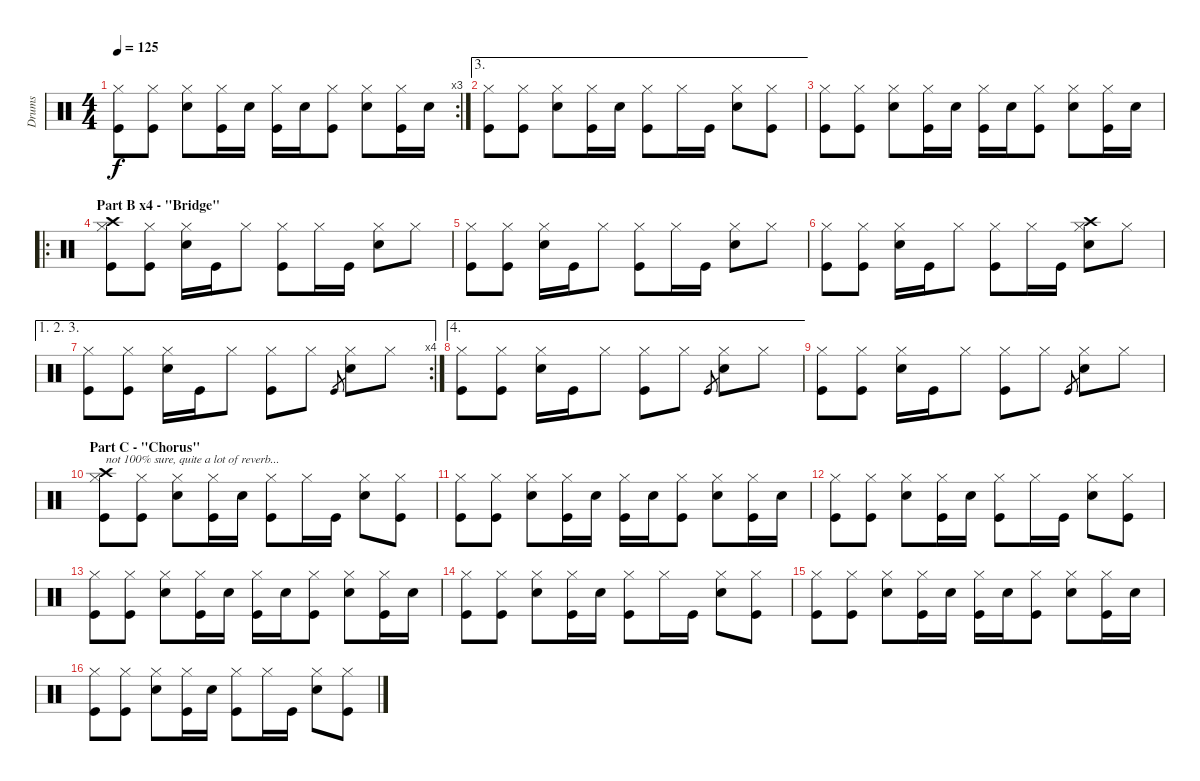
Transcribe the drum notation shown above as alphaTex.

\track ("Drums" "Drums") {instrument percussion}
\staff {score}
\articulation defaults
\rc 3
\ts (4 4)
\tempo 125
\clef neutral
\ks c
("Hi-Hat (closed)" "Kick (hit)").8{dy f} ("Hi-Hat (closed)" "Kick (hit)").8 ("Hi-Hat (closed)" "Electric Snare (hit)").8 ("Hi-Hat (closed)" "Kick (hit)").16 "Electric Snare (hit)".16 ("Hi-Hat (closed)" "Kick (hit)").16 "Electric Snare (hit)".16 ("Hi-Hat (closed)" "Kick (hit)").8 ("Hi-Hat (closed)" "Electric Snare (hit)").8 ("Hi-Hat (closed)" "Kick (hit)").16 "Electric Snare (hit)".16 |
\ae 3
("Hi-Hat (closed)" "Kick (hit)").8 ("Hi-Hat (closed)" "Kick (hit)").8 ("Hi-Hat (closed)" "Electric Snare (hit)").8 ("Hi-Hat (closed)" "Kick (hit)").16 "Electric Snare (hit)".16 ("Hi-Hat (closed)" "Kick (hit)").8 "Hi-Hat (closed)".16 "Kick (hit)".16 ("Hi-Hat (closed)" "Electric Snare (hit)").8 ("Hi-Hat (closed)" "Kick (hit)").8 |
("Hi-Hat (closed)" "Kick (hit)").8 ("Hi-Hat (closed)" "Kick (hit)").8 ("Hi-Hat (closed)" "Electric Snare (hit)").8 ("Hi-Hat (closed)" "Kick (hit)").16 "Electric Snare (hit)".16 ("Hi-Hat (closed)" "Kick (hit)").16 "Electric Snare (hit)".16 ("Hi-Hat (closed)" "Kick (hit)").8 ("Hi-Hat (closed)" "Electric Snare (hit)").8 ("Hi-Hat (closed)" "Kick (hit)").16 "Electric Snare (hit)".16 |
\ro
\section ("" "Part B x4 - \"Bridge\"")
("Hi-Hat (closed)" "Crash high (hit)" "Kick (hit)").8 ("Hi-Hat (closed)" "Kick (hit)").8 ("Hi-Hat (closed)" "Electric Snare (hit)").16 "Kick (hit)".16 "Hi-Hat (closed)".8 ("Hi-Hat (closed)" "Kick (hit)").8 "Hi-Hat (closed)".16 "Kick (hit)".16 ("Hi-Hat (closed)" "Electric Snare (hit)").8 "Hi-Hat (closed)".8 |
("Hi-Hat (closed)" "Kick (hit)").8 ("Hi-Hat (closed)" "Kick (hit)").8 ("Hi-Hat (closed)" "Electric Snare (hit)").16 "Kick (hit)".16 "Hi-Hat (closed)".8 ("Hi-Hat (closed)" "Kick (hit)").8 "Hi-Hat (closed)".16 "Kick (hit)".16 ("Hi-Hat (closed)" "Electric Snare (hit)").8 "Hi-Hat (closed)".8 |
("Hi-Hat (closed)" "Kick (hit)").8 ("Hi-Hat (closed)" "Kick (hit)").8 ("Hi-Hat (closed)" "Electric Snare (hit)").16 "Kick (hit)".16 "Hi-Hat (closed)".8 ("Hi-Hat (closed)" "Kick (hit)").8 "Hi-Hat (closed)".16 "Kick (hit)".16 ("Hi-Hat (closed)" "Crash high (hit)" "Electric Snare (hit)").8 "Hi-Hat (closed)".8 |
\ae (1 2 3)
\rc 4
("Hi-Hat (closed)" "Kick (hit)").8 ("Hi-Hat (closed)" "Kick (hit)").8 ("Hi-Hat (closed)" "Electric Snare (hit)").16 "Kick (hit)".16 "Hi-Hat (closed)".8 ("Hi-Hat (closed)" "Kick (hit)").8 "Hi-Hat (closed)".8 "Kick (hit)".8{gr} ("Hi-Hat (closed)" "Electric Snare (hit)").8 "Hi-Hat (closed)".8 |
\ae 4
("Hi-Hat (closed)" "Kick (hit)").8 ("Hi-Hat (closed)" "Kick (hit)").8 ("Hi-Hat (closed)" "Electric Snare (hit)").16 "Kick (hit)".16 "Hi-Hat (closed)".8 ("Hi-Hat (closed)" "Kick (hit)").8 "Hi-Hat (closed)".8 "Kick (hit)".8{gr} ("Hi-Hat (closed)" "Electric Snare (hit)").8 "Hi-Hat (closed)".8 |
("Hi-Hat (closed)" "Kick (hit)").8 ("Hi-Hat (closed)" "Kick (hit)").8 ("Hi-Hat (closed)" "Electric Snare (hit)").16 "Kick (hit)".16 "Hi-Hat (closed)".8 ("Hi-Hat (closed)" "Kick (hit)").8 "Hi-Hat (closed)".8 "Kick (hit)".8{gr} ("Hi-Hat (closed)" "Electric Snare (hit)").8 "Hi-Hat (closed)".8 |
\section ("" "Part C - \"Chorus\"")
("Hi-Hat (closed)" "Crash high (hit)" "Kick (hit)").8{txt "not 100% sure, quite a lot of reverb..."} ("Hi-Hat (closed)" "Kick (hit)").8 ("Hi-Hat (closed)" "Electric Snare (hit)").8 ("Hi-Hat (closed)" "Kick (hit)").16 "Electric Snare (hit)".16 ("Hi-Hat (closed)" "Kick (hit)").8 "Hi-Hat (closed)".16 "Kick (hit)".16 ("Hi-Hat (closed)" "Electric Snare (hit)").8 ("Hi-Hat (closed)" "Kick (hit)").8 |
("Hi-Hat (closed)" "Kick (hit)").8 ("Hi-Hat (closed)" "Kick (hit)").8 ("Hi-Hat (closed)" "Electric Snare (hit)").8 ("Hi-Hat (closed)" "Kick (hit)").16 "Electric Snare (hit)".16 ("Hi-Hat (closed)" "Kick (hit)").16 "Electric Snare (hit)".16 ("Hi-Hat (closed)" "Kick (hit)").8 ("Hi-Hat (closed)" "Electric Snare (hit)").8 ("Hi-Hat (closed)" "Kick (hit)").16 "Electric Snare (hit)".16 |
("Hi-Hat (closed)" "Kick (hit)").8 ("Hi-Hat (closed)" "Kick (hit)").8 ("Hi-Hat (closed)" "Electric Snare (hit)").8 ("Hi-Hat (closed)" "Kick (hit)").16 "Electric Snare (hit)".16 ("Hi-Hat (closed)" "Kick (hit)").8 "Hi-Hat (closed)".16 "Kick (hit)".16 ("Hi-Hat (closed)" "Electric Snare (hit)").8 ("Hi-Hat (closed)" "Kick (hit)").8 |
("Hi-Hat (closed)" "Kick (hit)").8 ("Hi-Hat (closed)" "Kick (hit)").8 ("Hi-Hat (closed)" "Electric Snare (hit)").8 ("Hi-Hat (closed)" "Kick (hit)").16 "Electric Snare (hit)".16 ("Hi-Hat (closed)" "Kick (hit)").16 "Electric Snare (hit)".16 ("Hi-Hat (closed)" "Kick (hit)").8 ("Hi-Hat (closed)" "Electric Snare (hit)").8 ("Hi-Hat (closed)" "Kick (hit)").16 "Electric Snare (hit)".16 |
("Hi-Hat (closed)" "Kick (hit)").8 ("Hi-Hat (closed)" "Kick (hit)").8 ("Hi-Hat (closed)" "Electric Snare (hit)").8 ("Hi-Hat (closed)" "Kick (hit)").16 "Electric Snare (hit)".16 ("Hi-Hat (closed)" "Kick (hit)").8 "Hi-Hat (closed)".16 "Kick (hit)".16 ("Hi-Hat (closed)" "Electric Snare (hit)").8 ("Hi-Hat (closed)" "Kick (hit)").8 |
("Hi-Hat (closed)" "Kick (hit)").8 ("Hi-Hat (closed)" "Kick (hit)").8 ("Hi-Hat (closed)" "Electric Snare (hit)").8 ("Hi-Hat (closed)" "Kick (hit)").16 "Electric Snare (hit)".16 ("Hi-Hat (closed)" "Kick (hit)").16 "Electric Snare (hit)".16 ("Hi-Hat (closed)" "Kick (hit)").8 ("Hi-Hat (closed)" "Electric Snare (hit)").8 ("Hi-Hat (closed)" "Kick (hit)").16 "Electric Snare (hit)".16 |
("Hi-Hat (closed)" "Kick (hit)").8 ("Hi-Hat (closed)" "Kick (hit)").8 ("Hi-Hat (closed)" "Electric Snare (hit)").8 ("Hi-Hat (closed)" "Kick (hit)").16 "Electric Snare (hit)".16 ("Hi-Hat (closed)" "Kick (hit)").8 "Hi-Hat (closed)".16 "Kick (hit)".16 ("Hi-Hat (closed)" "Electric Snare (hit)").8 ("Hi-Hat (closed)" "Kick (hit)").8
